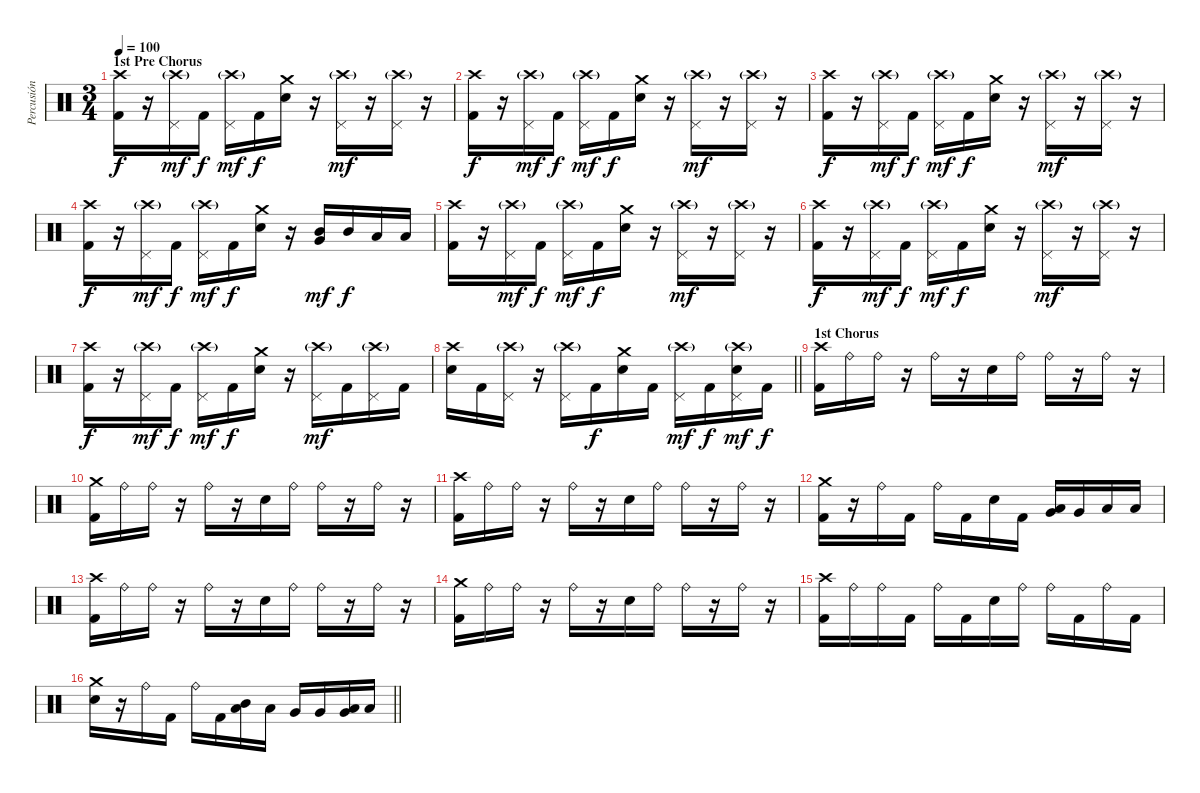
\track ("Percusión" "Percusión") {instrument percussion}
\staff {score}
\articulation defaults
\ts (3 4)
\section ("" "1st Pre Chorus")
\tempo 100
\clef neutral
\ks c
("Crash high (hit)" "Kick (hit) 2").16{dy f} r.16 ("Crash high (hit)"{g} "Pedal Hi-Hat (hit)").16{dy mf} "Kick (hit) 2".16{dy f} ("Crash high (hit)"{g} "Pedal Hi-Hat (hit)").16{dy mf} "Kick (hit) 2".16{dy f} ("Crash medium (hit)" "Electric Snare (hit)").16 r.16 ("Crash high (hit)"{g} "Pedal Hi-Hat (hit)").16{dy mf} r.16 ("Crash high (hit)"{g} "Pedal Hi-Hat (hit)").16 r.16 |
("Crash high (hit)" "Kick (hit) 2").16{dy f} r.16 ("Crash high (hit)"{g} "Pedal Hi-Hat (hit)").16{dy mf} "Kick (hit) 2".16{dy f} ("Crash high (hit)"{g} "Pedal Hi-Hat (hit)").16{dy mf} "Kick (hit) 2".16{dy f} ("Crash medium (hit)" "Electric Snare (hit)").16 r.16 ("Crash high (hit)"{g} "Pedal Hi-Hat (hit)").16{dy mf} r.16 ("Crash high (hit)"{g} "Pedal Hi-Hat (hit)").16 r.16 |
("Crash high (hit)" "Kick (hit) 2").16{dy f} r.16 ("Crash high (hit)"{g} "Pedal Hi-Hat (hit)").16{dy mf} "Kick (hit) 2".16{dy f} ("Crash high (hit)"{g} "Pedal Hi-Hat (hit)").16{dy mf} "Kick (hit) 2".16{dy f} ("Crash medium (hit)" "Electric Snare (hit)").16 r.16 ("Crash high (hit)"{g} "Pedal Hi-Hat (hit)").16{dy mf} r.16 ("Crash high (hit)"{g} "Pedal Hi-Hat (hit)").16 r.16 |
("Crash high (hit)" "Kick (hit) 2").16{dy f} r.16 ("Crash high (hit)"{g} "Pedal Hi-Hat (hit)").16{dy mf} "Kick (hit) 2".16{dy f} ("Crash high (hit)"{g} "Pedal Hi-Hat (hit)").16{dy mf} "Kick (hit) 2".16{dy f} ("Crash medium (hit)" "Electric Snare (hit)").16 r.16 ("Mid Tom (hit)" "Very Low Tom (hit)").16{dy mf} "Mid Tom (hit)".16{dy f} "Low Tom (hit)".16 "Low Tom (hit)".16 |
("Crash high (hit)" "Kick (hit) 2").16 r.16 ("Crash high (hit)"{g} "Pedal Hi-Hat (hit)").16{dy mf} "Kick (hit) 2".16{dy f} ("Crash high (hit)"{g} "Pedal Hi-Hat (hit)").16{dy mf} "Kick (hit) 2".16{dy f} ("Crash medium (hit)" "Electric Snare (hit)").16 r.16 ("Crash high (hit)"{g} "Pedal Hi-Hat (hit)").16{dy mf} r.16 ("Crash high (hit)"{g} "Pedal Hi-Hat (hit)").16 r.16 |
("Crash high (hit)" "Kick (hit) 2").16{dy f} r.16 ("Crash high (hit)"{g} "Pedal Hi-Hat (hit)").16{dy mf} "Kick (hit) 2".16{dy f} ("Crash high (hit)"{g} "Pedal Hi-Hat (hit)").16{dy mf} "Kick (hit) 2".16{dy f} ("Crash medium (hit)" "Electric Snare (hit)").16 r.16 ("Crash high (hit)"{g} "Pedal Hi-Hat (hit)").16{dy mf} r.16 ("Crash high (hit)"{g} "Pedal Hi-Hat (hit)").16 r.16 |
("Crash high (hit)" "Kick (hit) 2").16{dy f} r.16 ("Crash high (hit)"{g} "Pedal Hi-Hat (hit)").16{dy mf} "Kick (hit) 2".16{dy f} ("Crash high (hit)"{g} "Pedal Hi-Hat (hit)").16{dy mf} "Kick (hit) 2".16{dy f} ("Crash medium (hit)" "Electric Snare (hit)").16 r.16 ("Crash high (hit)"{g} "Pedal Hi-Hat (hit)").16{dy mf} "Kick (hit) 2".16 ("Crash high (hit)"{g} "Pedal Hi-Hat (hit)").16 "Kick (hit) 2".16 |
\barLineRight lightlight
("Crash high (hit)" "Electric Snare (hit)").16 "Kick (hit) 2".16 ("Crash high (hit)"{g} "Pedal Hi-Hat (hit)").16 r.16 ("Crash high (hit)"{g} "Pedal Hi-Hat (hit)").16 "Kick (hit) 2".16{dy f} ("Crash medium (hit)" "Electric Snare (hit)").16 "Kick (hit) 2".16 ("Crash high (hit)"{g} "Pedal Hi-Hat (hit)").16{dy mf} "Kick (hit) 2".16{dy f} ("Crash high (hit)"{g} "Pedal Hi-Hat (hit)" "Electric Snare (hit)").16{dy mf} "Kick (hit) 2".16{dy f} |
\section ("" "1st Chorus")
("Crash high (hit)" "Kick (hit) 2").16 "Ride (bell)".16 "Ride (bell)".16 r.16 "Ride (bell)".16 r.16 "Electric Snare (hit)".16 "Ride (bell)".16 "Ride (bell)".16 r.16 "Ride (bell)".16 r.16 |
("Crash medium (hit)" "Kick (hit) 2").16 "Ride (bell)".16 "Ride (bell)".16 r.16 "Ride (bell)".16 r.16 "Electric Snare (hit)".16 "Ride (bell)".16 "Ride (bell)".16 r.16 "Ride (bell)".16 r.16 |
("Crash high (hit)" "Kick (hit) 2").16 "Ride (bell)".16 "Ride (bell)".16 r.16 "Ride (bell)".16 r.16 "Electric Snare (hit)".16 "Ride (bell)".16 "Ride (bell)".16 r.16 "Ride (bell)".16 r.16 |
("Crash medium (hit)" "Kick (hit) 2").16 r.16 "Ride (bell)".16 "Kick (hit) 2".16 "Ride (bell)".16 "Kick (hit) 2".16 "Electric Snare (hit)".16 "Kick (hit) 2".16 ("Low Tom (hit)" "Very Low Tom (hit)").16 "Very Low Tom (hit)".16 "Low Floor Tom (hit)".16 "Low Floor Tom (hit)".16 |
("Crash high (hit)" "Kick (hit) 2").16 "Ride (bell)".16 "Ride (bell)".16 r.16 "Ride (bell)".16 r.16 "Electric Snare (hit)".16 "Ride (bell)".16 "Ride (bell)".16 r.16 "Ride (bell)".16 r.16 |
("Crash medium (hit)" "Kick (hit) 2").16 "Ride (bell)".16 "Ride (bell)".16 r.16 "Ride (bell)".16 r.16 "Electric Snare (hit)".16 "Ride (bell)".16 "Ride (bell)".16 r.16 "Ride (bell)".16 r.16 |
("Crash high (hit)" "Kick (hit) 2").16 "Ride (bell)".16 "Ride (bell)".16 "Kick (hit) 2".16 "Ride (bell)".16 "Kick (hit) 2".16 "Electric Snare (hit)".16 "Ride (bell)".16 "Ride (bell)".16 "Kick (hit) 2".16 "Ride (bell)".16 "Kick (hit) 2".16 |
\barLineRight lightlight
("Crash medium (hit)" "Electric Snare (hit)").16 r.16 "Ride (bell)".16 "Kick (hit) 2".16 "Ride (bell)".16 "Kick (hit) 2".16 ("Mid Tom (hit)" "Low Tom (hit)").16 "Low Tom (hit)".16 "Very Low Tom (hit)".16 "Very Low Tom (hit)".16 ("Very Low Tom (hit)" "Low Floor Tom (hit)").16 "Low Floor Tom (hit)".16
